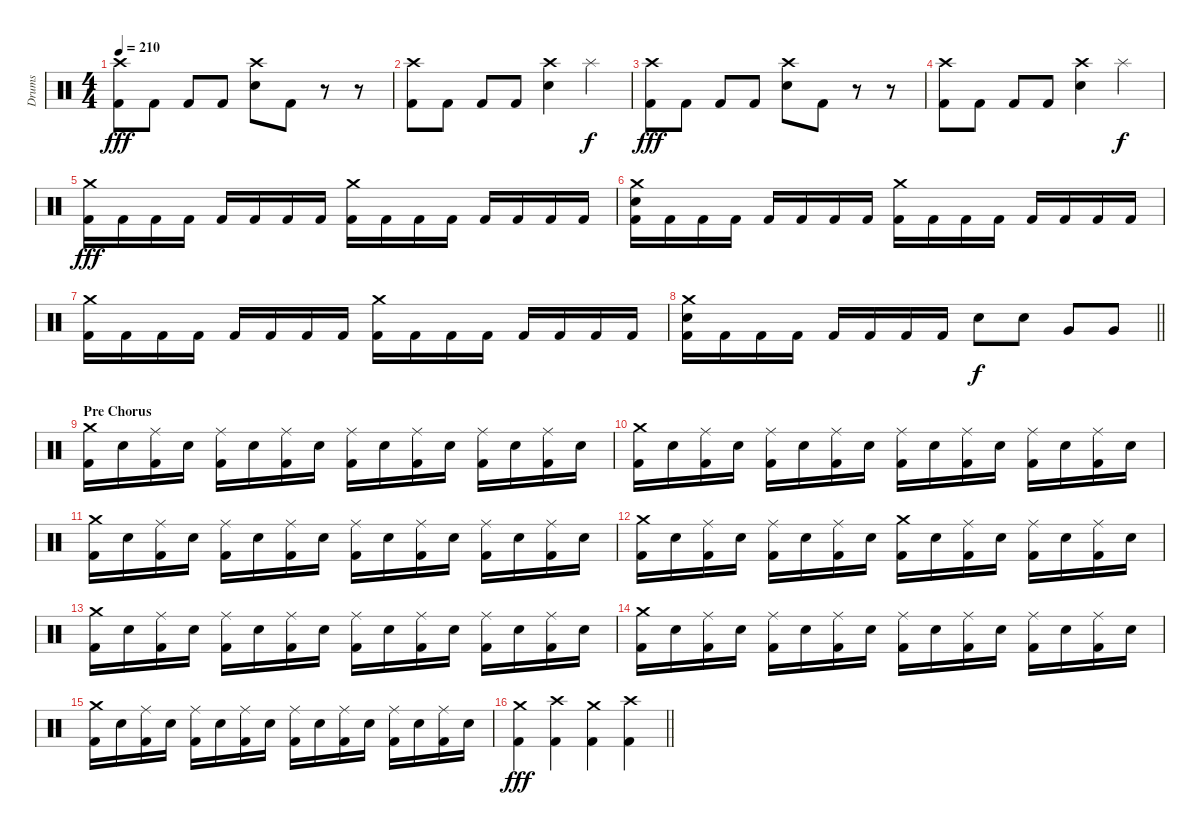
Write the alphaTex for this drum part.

\track ("Drums" "Drums") {instrument percussion}
\staff {score}
\articulation defaults
\ts (4 4)
\tempo 210
\clef neutral
\ks c
("Crash high (hit)" "Kick (hit) 2").8{dy fff} "Kick (hit) 2".8 "Kick (hit) 2".8 "Kick (hit) 2".8 ("Crash high (hit)" "Electric Snare (hit)").8 "Kick (hit) 2".8 r.8 r.8 |
("Crash high (hit)" "Kick (hit) 2").8 "Kick (hit) 2".8 "Kick (hit) 2".8 "Kick (hit) 2".8 ("Crash high (hit)" "Electric Snare (hit)").4 "Splash (hit)".4{dy f} |
("Crash high (hit)" "Kick (hit) 2").8{dy fff} "Kick (hit) 2".8 "Kick (hit) 2".8 "Kick (hit) 2".8 ("Crash high (hit)" "Electric Snare (hit)").8 "Kick (hit) 2".8 r.8 r.8 |
("Crash high (hit)" "Kick (hit) 2").8 "Kick (hit) 2".8 "Kick (hit) 2".8 "Kick (hit) 2".8 ("Crash high (hit)" "Electric Snare (hit)").4 "Splash (hit)".4{dy f} |
("Crash medium (hit)" "Kick (hit) 2").16{dy fff} "Kick (hit) 2".16 "Kick (hit) 2".16 "Kick (hit) 2".16 "Kick (hit) 2".16 "Kick (hit) 2".16 "Kick (hit) 2".16 "Kick (hit) 2".16 ("Crash medium (hit)" "Kick (hit) 2").16 "Kick (hit) 2".16 "Kick (hit) 2".16 "Kick (hit) 2".16 "Kick (hit) 2".16 "Kick (hit) 2".16 "Kick (hit) 2".16 "Kick (hit) 2".16 |
("Crash medium (hit)" "Electric Snare (hit)" "Kick (hit) 2").16 "Kick (hit) 2".16 "Kick (hit) 2".16 "Kick (hit) 2".16 "Kick (hit) 2".16 "Kick (hit) 2".16 "Kick (hit) 2".16 "Kick (hit) 2".16 ("Crash medium (hit)" "Kick (hit) 2").16 "Kick (hit) 2".16 "Kick (hit) 2".16 "Kick (hit) 2".16 "Kick (hit) 2".16 "Kick (hit) 2".16 "Kick (hit) 2".16 "Kick (hit) 2".16 |
("Crash medium (hit)" "Kick (hit) 2").16 "Kick (hit) 2".16 "Kick (hit) 2".16 "Kick (hit) 2".16 "Kick (hit) 2".16 "Kick (hit) 2".16 "Kick (hit) 2".16 "Kick (hit) 2".16 ("Crash medium (hit)" "Kick (hit) 2").16 "Kick (hit) 2".16 "Kick (hit) 2".16 "Kick (hit) 2".16 "Kick (hit) 2".16 "Kick (hit) 2".16 "Kick (hit) 2".16 "Kick (hit) 2".16 |
\barLineRight lightlight
("Crash medium (hit)" "Electric Snare (hit)" "Kick (hit) 2").16 "Kick (hit) 2".16 "Kick (hit) 2".16 "Kick (hit) 2".16 "Kick (hit) 2".16 "Kick (hit) 2".16 "Kick (hit) 2".16 "Kick (hit) 2".16 "Electric Snare (hit)".8{dy f} "Electric Snare (hit)".8 "Very Low Tom (hit)".8 "Very Low Tom (hit)".8 |
\section ("" "Pre Chorus")
("Crash medium (hit)" "Kick (hit) 2").16 "Electric Snare (hit)".16 ("Ride (middle)" "Kick (hit) 2").16 "Electric Snare (hit)".16 ("Ride (middle)" "Kick (hit) 2").16 "Electric Snare (hit)".16 ("Ride (middle)" "Kick (hit) 2").16 "Electric Snare (hit)".16 ("Ride (middle)" "Kick (hit) 2").16 "Electric Snare (hit)".16 ("Ride (middle)" "Kick (hit) 2").16 "Electric Snare (hit)".16 ("Ride (middle)" "Kick (hit) 2").16 "Electric Snare (hit)".16 ("Ride (middle)" "Kick (hit) 2").16 "Electric Snare (hit)".16 |
("Crash medium (hit)" "Kick (hit) 2").16 "Electric Snare (hit)".16 ("Ride (middle)" "Kick (hit) 2").16 "Electric Snare (hit)".16 ("Ride (middle)" "Kick (hit) 2").16 "Electric Snare (hit)".16 ("Ride (middle)" "Kick (hit) 2").16 "Electric Snare (hit)".16 ("Ride (middle)" "Kick (hit) 2").16 "Electric Snare (hit)".16 ("Ride (middle)" "Kick (hit) 2").16 "Electric Snare (hit)".16 ("Ride (middle)" "Kick (hit) 2").16 "Electric Snare (hit)".16 ("Ride (middle)" "Kick (hit) 2").16 "Electric Snare (hit)".16 |
("Crash medium (hit)" "Kick (hit) 2").16 "Electric Snare (hit)".16 ("Ride (middle)" "Kick (hit) 2").16 "Electric Snare (hit)".16 ("Ride (middle)" "Kick (hit) 2").16 "Electric Snare (hit)".16 ("Ride (middle)" "Kick (hit) 2").16 "Electric Snare (hit)".16 ("Ride (middle)" "Kick (hit) 2").16 "Electric Snare (hit)".16 ("Ride (middle)" "Kick (hit) 2").16 "Electric Snare (hit)".16 ("Ride (middle)" "Kick (hit) 2").16 "Electric Snare (hit)".16 ("Ride (middle)" "Kick (hit) 2").16 "Electric Snare (hit)".16 |
("Crash medium (hit)" "Kick (hit) 2").16 "Electric Snare (hit)".16 ("Ride (middle)" "Kick (hit) 2").16 "Electric Snare (hit)".16 ("Ride (middle)" "Kick (hit) 2").16 "Electric Snare (hit)".16 ("Ride (middle)" "Kick (hit) 2").16 "Electric Snare (hit)".16 ("Crash medium (hit)" "Kick (hit) 2").16 "Electric Snare (hit)".16 ("Ride (middle)" "Kick (hit) 2").16 "Electric Snare (hit)".16 ("Ride (middle)" "Kick (hit) 2").16 "Electric Snare (hit)".16 ("Ride (middle)" "Kick (hit) 2").16 "Electric Snare (hit)".16 |
("Crash medium (hit)" "Kick (hit) 2").16 "Electric Snare (hit)".16 ("Ride (middle)" "Kick (hit) 2").16 "Electric Snare (hit)".16 ("Ride (middle)" "Kick (hit) 2").16 "Electric Snare (hit)".16 ("Ride (middle)" "Kick (hit) 2").16 "Electric Snare (hit)".16 ("Ride (middle)" "Kick (hit) 2").16 "Electric Snare (hit)".16 ("Ride (middle)" "Kick (hit) 2").16 "Electric Snare (hit)".16 ("Ride (middle)" "Kick (hit) 2").16 "Electric Snare (hit)".16 ("Ride (middle)" "Kick (hit) 2").16 "Electric Snare (hit)".16 |
("Crash medium (hit)" "Kick (hit) 2").16 "Electric Snare (hit)".16 ("Ride (middle)" "Kick (hit) 2").16 "Electric Snare (hit)".16 ("Ride (middle)" "Kick (hit) 2").16 "Electric Snare (hit)".16 ("Ride (middle)" "Kick (hit) 2").16 "Electric Snare (hit)".16 ("Ride (middle)" "Kick (hit) 2").16 "Electric Snare (hit)".16 ("Ride (middle)" "Kick (hit) 2").16 "Electric Snare (hit)".16 ("Ride (middle)" "Kick (hit) 2").16 "Electric Snare (hit)".16 ("Ride (middle)" "Kick (hit) 2").16 "Electric Snare (hit)".16 |
("Crash medium (hit)" "Kick (hit) 2").16 "Electric Snare (hit)".16 ("Ride (middle)" "Kick (hit) 2").16 "Electric Snare (hit)".16 ("Ride (middle)" "Kick (hit) 2").16 "Electric Snare (hit)".16 ("Ride (middle)" "Kick (hit) 2").16 "Electric Snare (hit)".16 ("Ride (middle)" "Kick (hit) 2").16 "Electric Snare (hit)".16 ("Ride (middle)" "Kick (hit) 2").16 "Electric Snare (hit)".16 ("Ride (middle)" "Kick (hit) 2").16 "Electric Snare (hit)".16 ("Ride (middle)" "Kick (hit) 2").16 "Electric Snare (hit)".16 |
\barLineRight lightlight
("Crash medium (hit)" "Kick (hit) 2").4{dy fff} ("Crash high (hit)" "Kick (hit) 2").4 ("Crash medium (hit)" "Kick (hit) 2").4 ("Crash high (hit)" "Kick (hit) 2").4
